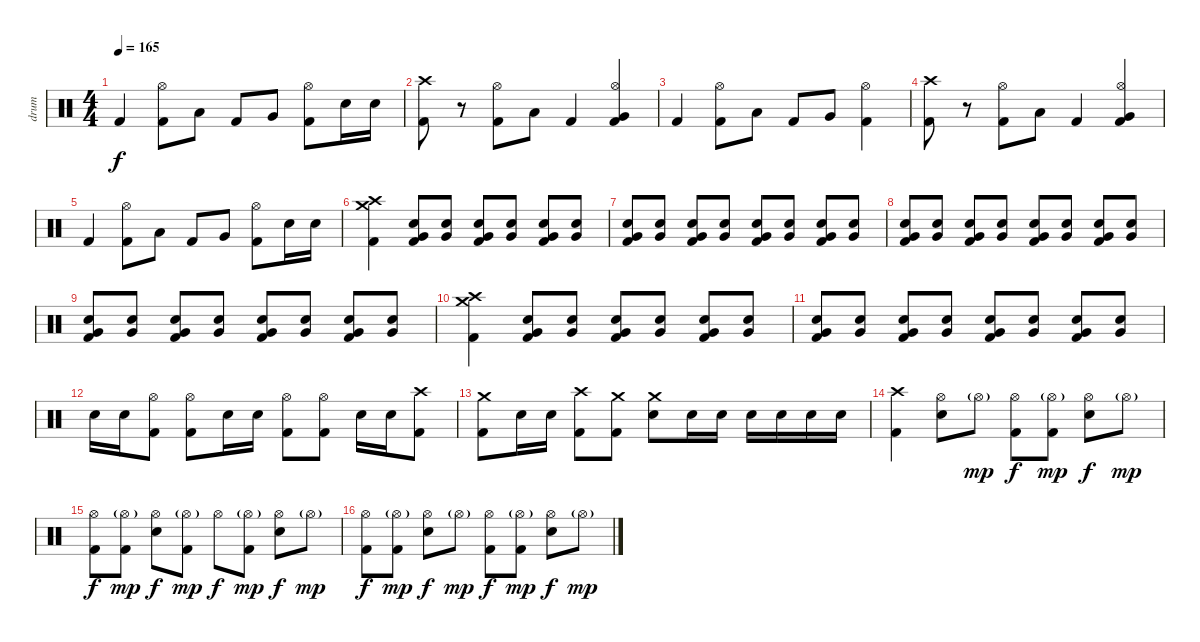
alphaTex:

\track ("drum" "drum") {instrument percussion}
\staff {score}
\articulation defaults
\ts (4 4)
\tempo 165
\clef neutral
\ks c "Kick (hit) 2".4{dy f}
("Hi-Hat (open)" "Kick (hit) 2").8 "Low Tom (hit)".8 "Kick (hit) 2".8 "Very Low Tom (hit)".8 ("Kick (hit) 2" "Hi-Hat (open)").8 "Electric Snare (hit)".16 "Electric Snare (hit)".16 |
("Crash high (hit)" "Kick (hit) 2").8 r.8 ("Hi-Hat (open)" "Kick (hit) 2").8 "Low Tom (hit)".8 "Kick (hit) 2".4 ("Very Low Tom (hit)" "Kick (hit) 2" "Hi-Hat (open)").4 |
"Kick (hit) 2".4 ("Hi-Hat (open)" "Kick (hit) 2").8 "Low Tom (hit)".8 "Kick (hit) 2".8 "Very Low Tom (hit)".8 ("Kick (hit) 2" "Hi-Hat (open)").4 |
("Crash high (hit)" "Kick (hit) 2").8 r.8 ("Hi-Hat (open)" "Kick (hit) 2").8 "Low Tom (hit)".8 "Kick (hit) 2".4 ("Very Low Tom (hit)" "Kick (hit) 2" "Hi-Hat (open)").4 |
"Kick (hit) 2".4 ("Hi-Hat (open)" "Kick (hit) 2").8 "Low Tom (hit)".8 "Kick (hit) 2".8 "Very Low Tom (hit)".8 ("Kick (hit) 2" "Hi-Hat (open)").8 "Electric Snare (hit)".16 "Electric Snare (hit)".16 |
("Crash medium (hit)" "Crash high (hit)" "Kick (hit) 2").4 ("Very Low Tom (hit)" "Electric Snare (hit)" "Kick (hit) 2").8 ("Very Low Tom (hit)" "Electric Snare (hit)").8 ("Very Low Tom (hit)" "Electric Snare (hit)" "Kick (hit) 2").8 ("Very Low Tom (hit)" "Electric Snare (hit)").8 ("Very Low Tom (hit)" "Electric Snare (hit)" "Kick (hit) 2").8 ("Very Low Tom (hit)" "Electric Snare (hit)").8 |
("Very Low Tom (hit)" "Electric Snare (hit)" "Kick (hit) 2").8 ("Very Low Tom (hit)" "Electric Snare (hit)").8 ("Very Low Tom (hit)" "Electric Snare (hit)" "Kick (hit) 2").8 ("Very Low Tom (hit)" "Electric Snare (hit)").8 ("Very Low Tom (hit)" "Electric Snare (hit)" "Kick (hit) 2").8 ("Very Low Tom (hit)" "Electric Snare (hit)").8 ("Very Low Tom (hit)" "Electric Snare (hit)" "Kick (hit) 2").8 ("Very Low Tom (hit)" "Electric Snare (hit)").8 |
("Very Low Tom (hit)" "Electric Snare (hit)" "Kick (hit) 2").8 ("Very Low Tom (hit)" "Electric Snare (hit)").8 ("Very Low Tom (hit)" "Electric Snare (hit)" "Kick (hit) 2").8 ("Very Low Tom (hit)" "Electric Snare (hit)").8 ("Very Low Tom (hit)" "Electric Snare (hit)" "Kick (hit) 2").8 ("Very Low Tom (hit)" "Electric Snare (hit)").8 ("Very Low Tom (hit)" "Electric Snare (hit)" "Kick (hit) 2").8 ("Very Low Tom (hit)" "Electric Snare (hit)").8 |
("Very Low Tom (hit)" "Electric Snare (hit)" "Kick (hit) 2").8 ("Very Low Tom (hit)" "Electric Snare (hit)").8 ("Very Low Tom (hit)" "Electric Snare (hit)" "Kick (hit) 2").8 ("Very Low Tom (hit)" "Electric Snare (hit)").8 ("Very Low Tom (hit)" "Electric Snare (hit)" "Kick (hit) 2").8 ("Very Low Tom (hit)" "Electric Snare (hit)").8 ("Very Low Tom (hit)" "Electric Snare (hit)" "Kick (hit) 2").8 ("Very Low Tom (hit)" "Electric Snare (hit)").8 |
("Crash medium (hit)" "Crash high (hit)" "Kick (hit) 2").4 ("Very Low Tom (hit)" "Electric Snare (hit)" "Kick (hit) 2").8 ("Very Low Tom (hit)" "Electric Snare (hit)").8 ("Very Low Tom (hit)" "Electric Snare (hit)" "Kick (hit) 2").8 ("Very Low Tom (hit)" "Electric Snare (hit)").8 ("Very Low Tom (hit)" "Electric Snare (hit)" "Kick (hit) 2").8 ("Very Low Tom (hit)" "Electric Snare (hit)").8 |
("Very Low Tom (hit)" "Electric Snare (hit)" "Kick (hit) 2").8 ("Very Low Tom (hit)" "Electric Snare (hit)").8 ("Very Low Tom (hit)" "Electric Snare (hit)" "Kick (hit) 2").8 ("Very Low Tom (hit)" "Electric Snare (hit)").8 ("Very Low Tom (hit)" "Electric Snare (hit)" "Kick (hit) 2").8 ("Very Low Tom (hit)" "Electric Snare (hit)").8 ("Very Low Tom (hit)" "Electric Snare (hit)" "Kick (hit) 2").8 ("Very Low Tom (hit)" "Electric Snare (hit)").8 |
"Electric Snare (hit)".16 "Electric Snare (hit)".16 ("Hi-Hat (open)" "Kick (hit) 2").8 ("Hi-Hat (open)" "Kick (hit) 2").8 "Electric Snare (hit)".16 "Electric Snare (hit)".16 ("Hi-Hat (open)" "Kick (hit) 2").8 ("Hi-Hat (open)" "Kick (hit) 2").8 "Electric Snare (hit)".16 "Electric Snare (hit)".16 ("Crash high (hit)" "Kick (hit) 2").8 |
("Crash medium (hit)" "Kick (hit) 2").8 "Electric Snare (hit)".16 "Electric Snare (hit)".16 ("Crash high (hit)" "Kick (hit) 2").8 ("Crash medium (hit)" "Kick (hit) 2").8 ("Crash medium (hit)" "Electric Snare (hit)").8 "Electric Snare (hit)".16 "Electric Snare (hit)".16 "Electric Snare (hit)".16 "Electric Snare (hit)".16 "Electric Snare (hit)".16 "Electric Snare (hit)".16 |
("Crash high (hit)" "Kick (hit) 2").4 ("Hi-Hat (open)" "Electric Snare (hit)").8 "Hi-Hat (open)"{g}.8{dy mp} ("Hi-Hat (open)" "Kick (hit) 2").8{dy f} ("Hi-Hat (open)"{g} "Kick (hit) 2").8{dy mp} ("Hi-Hat (open)" "Electric Snare (hit)").8{dy f} "Hi-Hat (open)"{g}.8{dy mp} |
("Hi-Hat (open)" "Kick (hit) 2").8{dy f} ("Hi-Hat (open)"{g} "Kick (hit) 2").8{dy mp} ("Hi-Hat (open)" "Electric Snare (hit)").8{dy f} ("Hi-Hat (open)"{g} "Kick (hit) 2").8{dy mp} "Hi-Hat (open)".8{dy f} ("Hi-Hat (open)"{g} "Kick (hit) 2").8{dy mp} ("Hi-Hat (open)" "Electric Snare (hit)").8{dy f} "Hi-Hat (open)"{g}.8{dy mp} |
("Hi-Hat (open)" "Kick (hit) 2").8{dy f} ("Hi-Hat (open)"{g} "Kick (hit) 2").8{dy mp} ("Hi-Hat (open)" "Electric Snare (hit)").8{dy f} "Hi-Hat (open)"{g}.8{dy mp} ("Hi-Hat (open)" "Kick (hit) 2").8{dy f} ("Hi-Hat (open)"{g} "Kick (hit) 2").8{dy mp} ("Hi-Hat (open)" "Electric Snare (hit)").8{dy f} "Hi-Hat (open)"{g}.8{dy mp}
